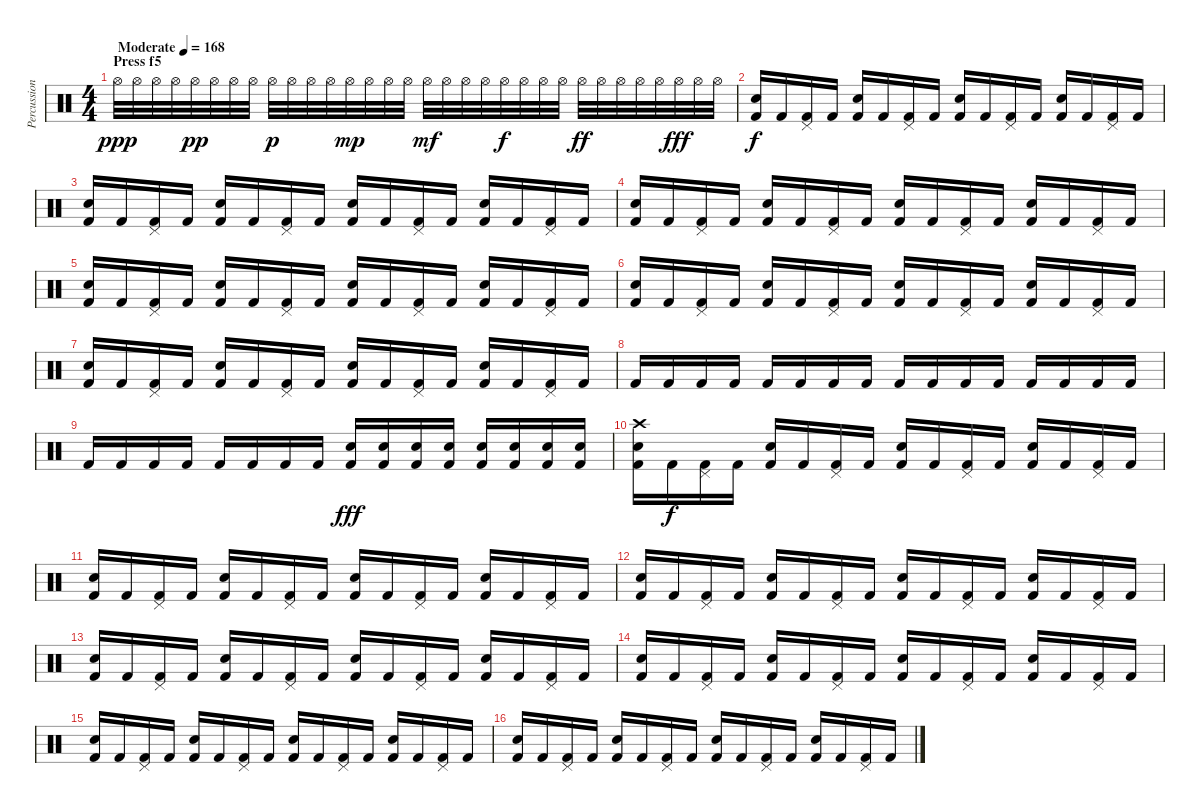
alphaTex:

\track ("Percussion" "Percussion") {instrument percussion}
\staff {score}
\articulation defaults
\ts (4 4)
\section ("" "Press f5")
\tempo (168 "Moderate")
\clef neutral
\ks c "Hi-Hat (open)".32{dy ppp volume 16} "Hi-Hat (open)".32 "Hi-Hat (open)".32 "Hi-Hat (open)".32 "Hi-Hat (open)".32{dy pp} "Hi-Hat (open)".32 "Hi-Hat (open)".32 "Hi-Hat (open)".32 "Hi-Hat (open)".32{dy p} "Hi-Hat (open)".32 "Hi-Hat (open)".32 "Hi-Hat (open)".32 "Hi-Hat (open)".32{dy mp} "Hi-Hat (open)".32 "Hi-Hat (open)".32 "Hi-Hat (open)".32 "Hi-Hat (open)".32{dy mf} "Hi-Hat (open)".32 "Hi-Hat (open)".32 "Hi-Hat (open)".32 "Hi-Hat (open)".32{dy f} "Hi-Hat (open)".32 "Hi-Hat (open)".32 "Hi-Hat (open)".32 "Hi-Hat (open)".32{dy ff} "Hi-Hat (open)".32 "Hi-Hat (open)".32 "Hi-Hat (open)".32 "Hi-Hat (open)".32 "Hi-Hat (open)".32{dy fff} "Hi-Hat (open)".32 "Hi-Hat (open)".32
|
("Electric Snare (hit)" "Kick (hit) 2").16{dy f} "Kick (hit) 2".16 ("Pedal Hi-Hat (hit)" "Kick (hit) 2").16 "Kick (hit) 2".16 ("Electric Snare (hit)" "Kick (hit) 2").16 "Kick (hit) 2".16 ("Pedal Hi-Hat (hit)" "Kick (hit) 2").16 "Kick (hit) 2".16 ("Electric Snare (hit)" "Kick (hit) 2").16 "Kick (hit) 2".16 ("Pedal Hi-Hat (hit)" "Kick (hit) 2").16 "Kick (hit) 2".16 ("Electric Snare (hit)" "Kick (hit) 2").16 "Kick (hit) 2".16 ("Pedal Hi-Hat (hit)" "Kick (hit) 2").16 "Kick (hit) 2".16 |
("Electric Snare (hit)" "Kick (hit) 2").16 "Kick (hit) 2".16 ("Pedal Hi-Hat (hit)" "Kick (hit) 2").16 "Kick (hit) 2".16 ("Electric Snare (hit)" "Kick (hit) 2").16 "Kick (hit) 2".16 ("Pedal Hi-Hat (hit)" "Kick (hit) 2").16 "Kick (hit) 2".16 ("Electric Snare (hit)" "Kick (hit) 2").16 "Kick (hit) 2".16 ("Pedal Hi-Hat (hit)" "Kick (hit) 2").16 "Kick (hit) 2".16 ("Electric Snare (hit)" "Kick (hit) 2").16 "Kick (hit) 2".16 ("Pedal Hi-Hat (hit)" "Kick (hit) 2").16 "Kick (hit) 2".16 |
("Electric Snare (hit)" "Kick (hit) 2").16 "Kick (hit) 2".16 ("Pedal Hi-Hat (hit)" "Kick (hit) 2").16 "Kick (hit) 2".16 ("Electric Snare (hit)" "Kick (hit) 2").16 "Kick (hit) 2".16 ("Pedal Hi-Hat (hit)" "Kick (hit) 2").16 "Kick (hit) 2".16 ("Electric Snare (hit)" "Kick (hit) 2").16 "Kick (hit) 2".16 ("Pedal Hi-Hat (hit)" "Kick (hit) 2").16 "Kick (hit) 2".16 ("Electric Snare (hit)" "Kick (hit) 2").16 "Kick (hit) 2".16 ("Pedal Hi-Hat (hit)" "Kick (hit) 2").16 "Kick (hit) 2".16 |
("Electric Snare (hit)" "Kick (hit) 2").16 "Kick (hit) 2".16 ("Pedal Hi-Hat (hit)" "Kick (hit) 2").16 "Kick (hit) 2".16 ("Electric Snare (hit)" "Kick (hit) 2").16 "Kick (hit) 2".16 ("Pedal Hi-Hat (hit)" "Kick (hit) 2").16 "Kick (hit) 2".16 ("Electric Snare (hit)" "Kick (hit) 2").16 "Kick (hit) 2".16 ("Pedal Hi-Hat (hit)" "Kick (hit) 2").16 "Kick (hit) 2".16 ("Electric Snare (hit)" "Kick (hit) 2").16 "Kick (hit) 2".16 ("Pedal Hi-Hat (hit)" "Kick (hit) 2").16 "Kick (hit) 2".16 |
("Electric Snare (hit)" "Kick (hit) 2").16 "Kick (hit) 2".16 ("Pedal Hi-Hat (hit)" "Kick (hit) 2").16 "Kick (hit) 2".16 ("Electric Snare (hit)" "Kick (hit) 2").16 "Kick (hit) 2".16 ("Pedal Hi-Hat (hit)" "Kick (hit) 2").16 "Kick (hit) 2".16 ("Electric Snare (hit)" "Kick (hit) 2").16 "Kick (hit) 2".16 ("Pedal Hi-Hat (hit)" "Kick (hit) 2").16 "Kick (hit) 2".16 ("Electric Snare (hit)" "Kick (hit) 2").16 "Kick (hit) 2".16 ("Pedal Hi-Hat (hit)" "Kick (hit) 2").16 "Kick (hit) 2".16 |
("Electric Snare (hit)" "Kick (hit) 2").16 "Kick (hit) 2".16 ("Pedal Hi-Hat (hit)" "Kick (hit) 2").16 "Kick (hit) 2".16 ("Electric Snare (hit)" "Kick (hit) 2").16 "Kick (hit) 2".16 ("Pedal Hi-Hat (hit)" "Kick (hit) 2").16 "Kick (hit) 2".16 ("Electric Snare (hit)" "Kick (hit) 2").16 "Kick (hit) 2".16 ("Pedal Hi-Hat (hit)" "Kick (hit) 2").16 "Kick (hit) 2".16 ("Electric Snare (hit)" "Kick (hit) 2").16 "Kick (hit) 2".16 ("Pedal Hi-Hat (hit)" "Kick (hit) 2").16 "Kick (hit) 2".16 |
"Kick (hit) 2".16 "Kick (hit) 2".16 "Kick (hit) 2".16 "Kick (hit) 2".16 "Kick (hit) 2".16 "Kick (hit) 2".16 "Kick (hit) 2".16 "Kick (hit) 2".16 "Kick (hit) 2".16 "Kick (hit) 2".16 "Kick (hit) 2".16 "Kick (hit) 2".16 "Kick (hit) 2".16 "Kick (hit) 2".16 "Kick (hit) 2".16 "Kick (hit) 2".16 |
"Kick (hit) 2".16 "Kick (hit) 2".16 "Kick (hit) 2".16 "Kick (hit) 2".16 "Kick (hit) 2".16 "Kick (hit) 2".16 "Kick (hit) 2".16 "Kick (hit) 2".16 ("Electric Snare (hit)" "Kick (hit) 2").16{dy fff} ("Electric Snare (hit)" "Kick (hit) 2").16 ("Electric Snare (hit)" "Kick (hit) 2").16 ("Electric Snare (hit)" "Kick (hit) 2").16 ("Electric Snare (hit)" "Kick (hit) 2").16 ("Electric Snare (hit)" "Kick (hit) 2").16 ("Electric Snare (hit)" "Kick (hit) 2").16 ("Electric Snare (hit)" "Kick (hit) 2").16 |
("Crash high (hit)" "Electric Snare (hit)" "Kick (hit) 2").16 "Kick (hit) 2".16{dy f} ("Pedal Hi-Hat (hit)" "Kick (hit) 2").16 "Kick (hit) 2".16 ("Electric Snare (hit)" "Kick (hit) 2").16 "Kick (hit) 2".16 ("Pedal Hi-Hat (hit)" "Kick (hit) 2").16 "Kick (hit) 2".16 ("Electric Snare (hit)" "Kick (hit) 2").16 "Kick (hit) 2".16 ("Pedal Hi-Hat (hit)" "Kick (hit) 2").16 "Kick (hit) 2".16 ("Electric Snare (hit)" "Kick (hit) 2").16 "Kick (hit) 2".16 ("Pedal Hi-Hat (hit)" "Kick (hit) 2").16 "Kick (hit) 2".16 |
("Electric Snare (hit)" "Kick (hit) 2").16 "Kick (hit) 2".16 ("Pedal Hi-Hat (hit)" "Kick (hit) 2").16 "Kick (hit) 2".16 ("Electric Snare (hit)" "Kick (hit) 2").16 "Kick (hit) 2".16 ("Pedal Hi-Hat (hit)" "Kick (hit) 2").16 "Kick (hit) 2".16 ("Electric Snare (hit)" "Kick (hit) 2").16 "Kick (hit) 2".16 ("Pedal Hi-Hat (hit)" "Kick (hit) 2").16 "Kick (hit) 2".16 ("Electric Snare (hit)" "Kick (hit) 2").16 "Kick (hit) 2".16 ("Pedal Hi-Hat (hit)" "Kick (hit) 2").16 "Kick (hit) 2".16 |
("Electric Snare (hit)" "Kick (hit) 2").16 "Kick (hit) 2".16 ("Pedal Hi-Hat (hit)" "Kick (hit) 2").16 "Kick (hit) 2".16 ("Electric Snare (hit)" "Kick (hit) 2").16 "Kick (hit) 2".16 ("Pedal Hi-Hat (hit)" "Kick (hit) 2").16 "Kick (hit) 2".16 ("Electric Snare (hit)" "Kick (hit) 2").16 "Kick (hit) 2".16 ("Pedal Hi-Hat (hit)" "Kick (hit) 2").16 "Kick (hit) 2".16 ("Electric Snare (hit)" "Kick (hit) 2").16 "Kick (hit) 2".16 ("Pedal Hi-Hat (hit)" "Kick (hit) 2").16 "Kick (hit) 2".16 |
("Electric Snare (hit)" "Kick (hit) 2").16 "Kick (hit) 2".16 ("Pedal Hi-Hat (hit)" "Kick (hit) 2").16 "Kick (hit) 2".16 ("Electric Snare (hit)" "Kick (hit) 2").16 "Kick (hit) 2".16 ("Pedal Hi-Hat (hit)" "Kick (hit) 2").16 "Kick (hit) 2".16 ("Electric Snare (hit)" "Kick (hit) 2").16 "Kick (hit) 2".16 ("Pedal Hi-Hat (hit)" "Kick (hit) 2").16 "Kick (hit) 2".16 ("Electric Snare (hit)" "Kick (hit) 2").16 "Kick (hit) 2".16 ("Pedal Hi-Hat (hit)" "Kick (hit) 2").16 "Kick (hit) 2".16 |
("Electric Snare (hit)" "Kick (hit) 2").16 "Kick (hit) 2".16 ("Pedal Hi-Hat (hit)" "Kick (hit) 2").16 "Kick (hit) 2".16 ("Electric Snare (hit)" "Kick (hit) 2").16 "Kick (hit) 2".16 ("Pedal Hi-Hat (hit)" "Kick (hit) 2").16 "Kick (hit) 2".16 ("Electric Snare (hit)" "Kick (hit) 2").16 "Kick (hit) 2".16 ("Pedal Hi-Hat (hit)" "Kick (hit) 2").16 "Kick (hit) 2".16 ("Electric Snare (hit)" "Kick (hit) 2").16 "Kick (hit) 2".16 ("Pedal Hi-Hat (hit)" "Kick (hit) 2").16 "Kick (hit) 2".16 |
("Electric Snare (hit)" "Kick (hit) 2").16 "Kick (hit) 2".16 ("Pedal Hi-Hat (hit)" "Kick (hit) 2").16 "Kick (hit) 2".16 ("Electric Snare (hit)" "Kick (hit) 2").16 "Kick (hit) 2".16 ("Pedal Hi-Hat (hit)" "Kick (hit) 2").16 "Kick (hit) 2".16 ("Electric Snare (hit)" "Kick (hit) 2").16 "Kick (hit) 2".16 ("Pedal Hi-Hat (hit)" "Kick (hit) 2").16 "Kick (hit) 2".16 ("Electric Snare (hit)" "Kick (hit) 2").16 "Kick (hit) 2".16 ("Pedal Hi-Hat (hit)" "Kick (hit) 2").16 "Kick (hit) 2".16 |
("Electric Snare (hit)" "Kick (hit) 2").16 "Kick (hit) 2".16 ("Pedal Hi-Hat (hit)" "Kick (hit) 2").16 "Kick (hit) 2".16 ("Electric Snare (hit)" "Kick (hit) 2").16 "Kick (hit) 2".16 ("Pedal Hi-Hat (hit)" "Kick (hit) 2").16 "Kick (hit) 2".16 ("Electric Snare (hit)" "Kick (hit) 2").16 "Kick (hit) 2".16 ("Pedal Hi-Hat (hit)" "Kick (hit) 2").16 "Kick (hit) 2".16 ("Electric Snare (hit)" "Kick (hit) 2").16 "Kick (hit) 2".16 ("Pedal Hi-Hat (hit)" "Kick (hit) 2").16 "Kick (hit) 2".16
